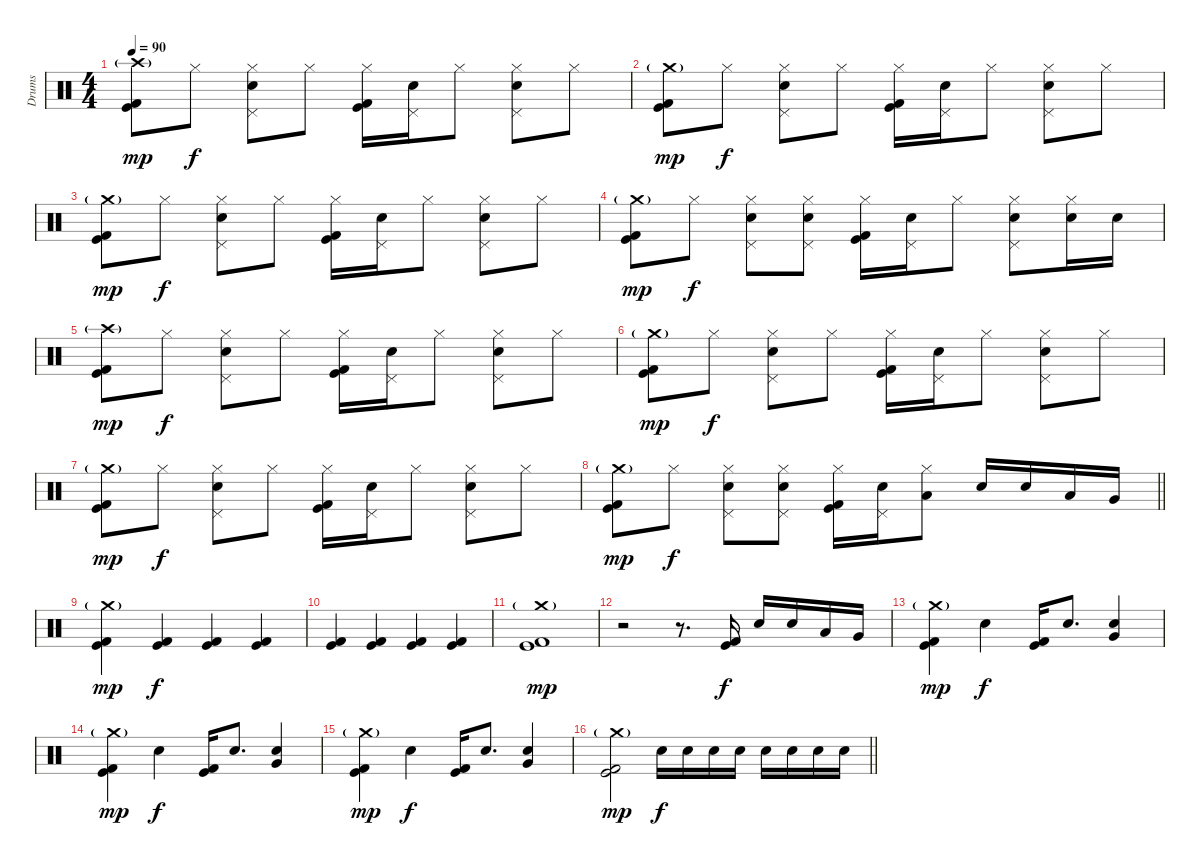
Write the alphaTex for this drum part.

\track ("Drums" "Drums") {instrument percussion}
\staff {score}
\articulation defaults
\ts (4 4)
\tempo 90
\clef neutral
\ks c
("Crash high (hit)"{g} "Kick (hit)" "Kick (hit) 2").8{dy mp} "Hi-Hat (closed)".8{dy f} ("Hi-Hat (closed)" "Pedal Hi-Hat (hit)" "Electric Snare (hit)").8 "Hi-Hat (closed)".8 ("Hi-Hat (closed)" "Kick (hit)" "Kick (hit) 2").16 ("Pedal Hi-Hat (hit)" "Electric Snare (hit)").16 "Hi-Hat (closed)".8 ("Hi-Hat (closed)" "Pedal Hi-Hat (hit)" "Electric Snare (hit)").8 "Hi-Hat (closed)".8 |
("Crash medium (hit)"{g} "Kick (hit)" "Kick (hit) 2").8{dy mp} "Hi-Hat (closed)".8{dy f} ("Hi-Hat (closed)" "Pedal Hi-Hat (hit)" "Electric Snare (hit)").8 "Hi-Hat (closed)".8 ("Hi-Hat (closed)" "Kick (hit)" "Kick (hit) 2").16 ("Pedal Hi-Hat (hit)" "Electric Snare (hit)").16 "Hi-Hat (closed)".8 ("Hi-Hat (closed)" "Pedal Hi-Hat (hit)" "Electric Snare (hit)").8 "Hi-Hat (closed)".8 |
("Crash medium (hit)"{g} "Kick (hit)" "Kick (hit) 2").8{dy mp} "Hi-Hat (closed)".8{dy f} ("Hi-Hat (closed)" "Pedal Hi-Hat (hit)" "Electric Snare (hit)").8 "Hi-Hat (closed)".8 ("Hi-Hat (closed)" "Kick (hit)" "Kick (hit) 2").16 ("Pedal Hi-Hat (hit)" "Electric Snare (hit)").16 "Hi-Hat (closed)".8 ("Hi-Hat (closed)" "Pedal Hi-Hat (hit)" "Electric Snare (hit)").8 "Hi-Hat (closed)".8 |
("Crash medium (hit)"{g} "Kick (hit)" "Kick (hit) 2").8{dy mp} "Hi-Hat (closed)".8{dy f} ("Hi-Hat (closed)" "Pedal Hi-Hat (hit)" "Electric Snare (hit)").8 ("Hi-Hat (closed)" "Pedal Hi-Hat (hit)" "Electric Snare (hit)").8 ("Hi-Hat (closed)" "Kick (hit)" "Kick (hit) 2").16 ("Pedal Hi-Hat (hit)" "Electric Snare (hit)").16 "Hi-Hat (closed)".8 ("Hi-Hat (closed)" "Pedal Hi-Hat (hit)" "Electric Snare (hit)").8 ("Hi-Hat (closed)" "Electric Snare (hit)").16 "Electric Snare (hit)".16 |
("Crash high (hit)"{g} "Kick (hit)" "Kick (hit) 2").8{dy mp} "Hi-Hat (closed)".8{dy f} ("Hi-Hat (closed)" "Pedal Hi-Hat (hit)" "Electric Snare (hit)").8 "Hi-Hat (closed)".8 ("Hi-Hat (closed)" "Kick (hit)" "Kick (hit) 2").16 ("Pedal Hi-Hat (hit)" "Electric Snare (hit)").16 "Hi-Hat (closed)".8 ("Hi-Hat (closed)" "Pedal Hi-Hat (hit)" "Electric Snare (hit)").8 "Hi-Hat (closed)".8 |
("Crash medium (hit)"{g} "Kick (hit)" "Kick (hit) 2").8{dy mp} "Hi-Hat (closed)".8{dy f} ("Hi-Hat (closed)" "Pedal Hi-Hat (hit)" "Electric Snare (hit)").8 "Hi-Hat (closed)".8 ("Hi-Hat (closed)" "Kick (hit)" "Kick (hit) 2").16 ("Pedal Hi-Hat (hit)" "Electric Snare (hit)").16 "Hi-Hat (closed)".8 ("Hi-Hat (closed)" "Pedal Hi-Hat (hit)" "Electric Snare (hit)").8 "Hi-Hat (closed)".8 |
("Crash medium (hit)"{g} "Kick (hit)" "Kick (hit) 2").8{dy mp} "Hi-Hat (closed)".8{dy f} ("Hi-Hat (closed)" "Pedal Hi-Hat (hit)" "Electric Snare (hit)").8 "Hi-Hat (closed)".8 ("Hi-Hat (closed)" "Kick (hit)" "Kick (hit) 2").16 ("Pedal Hi-Hat (hit)" "Electric Snare (hit)").16 "Hi-Hat (closed)".8 ("Hi-Hat (closed)" "Pedal Hi-Hat (hit)" "Electric Snare (hit)").8 "Hi-Hat (closed)".8 |
\barLineRight lightlight
("Crash medium (hit)"{g} "Kick (hit)" "Kick (hit) 2").8{dy mp} "Hi-Hat (closed)".8{dy f} ("Hi-Hat (closed)" "Pedal Hi-Hat (hit)" "Electric Snare (hit)").8 ("Hi-Hat (closed)" "Pedal Hi-Hat (hit)" "Electric Snare (hit)").8 ("Hi-Hat (closed)" "Kick (hit)" "Kick (hit) 2").16 ("Pedal Hi-Hat (hit)" "Electric Snare (hit)").16 ("Hi-Hat (closed)" "Low Tom (hit)").8 "Electric Snare (hit)".16 "Electric Snare (hit)".16 "Low Tom (hit)".16 "Very Low Tom (hit)".16 |
\section ("" "")
("Crash medium (hit)"{g} "Kick (hit)" "Kick (hit) 2").4{dy mp} ("Kick (hit)" "Kick (hit) 2").4{dy f} ("Kick (hit)" "Kick (hit) 2").4 ("Kick (hit)" "Kick (hit) 2").4 |
("Kick (hit)" "Kick (hit) 2").4 ("Kick (hit)" "Kick (hit) 2").4 ("Kick (hit)" "Kick (hit) 2").4 ("Kick (hit)" "Kick (hit) 2").4 |
("Crash medium (hit)"{g} "Kick (hit)" "Kick (hit) 2").1{dy mp} |
r.2 r.8{d} ("Kick (hit)" "Kick (hit) 2").16{dy f} "Electric Snare (hit)".16 "Electric Snare (hit)".16 "Low Tom (hit)".16 "Very Low Tom (hit)".16 |
("Crash medium (hit)"{g} "Kick (hit)" "Kick (hit) 2").4{dy mp} "Electric Snare (hit)".4{dy f} ("Kick (hit)" "Kick (hit) 2").16 "Electric Snare (hit)".8{d} ("Electric Snare (hit)" "Very Low Tom (hit)").4 |
("Crash medium (hit)"{g} "Kick (hit)" "Kick (hit) 2").4{dy mp} "Electric Snare (hit)".4{dy f} ("Kick (hit)" "Kick (hit) 2").16 "Electric Snare (hit)".8{d} ("Electric Snare (hit)" "Very Low Tom (hit)").4 |
("Crash medium (hit)"{g} "Kick (hit)" "Kick (hit) 2").4{dy mp} "Electric Snare (hit)".4{dy f} ("Kick (hit)" "Kick (hit) 2").16 "Electric Snare (hit)".8{d} ("Electric Snare (hit)" "Very Low Tom (hit)").4 |
\barLineRight lightlight
("Crash medium (hit)"{g} "Kick (hit)" "Kick (hit) 2").2{dy mp} "Electric Snare (hit)".16{dy f} "Electric Snare (hit)".16 "Electric Snare (hit)".16 "Electric Snare (hit)".16 "Electric Snare (hit)".16 "Electric Snare (hit)".16 "Electric Snare (hit)".16 "Electric Snare (hit)".16
